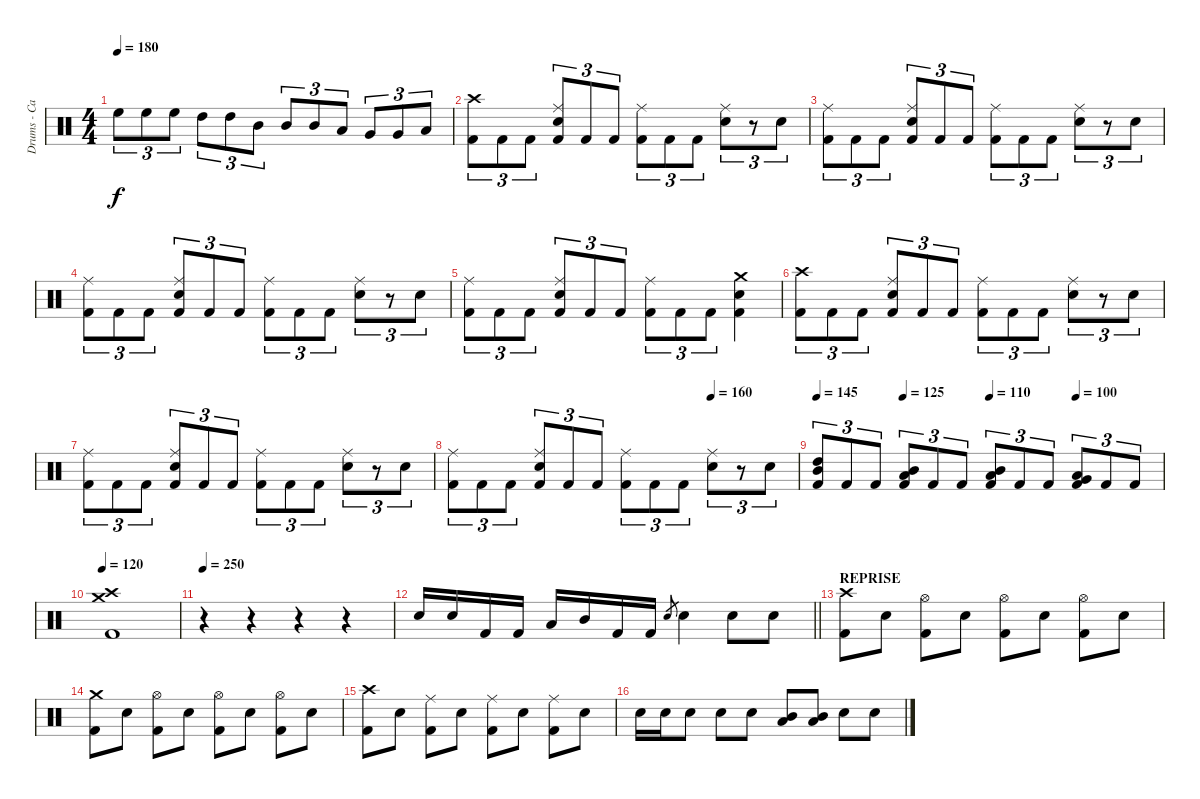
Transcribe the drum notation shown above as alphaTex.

\track ("Drums - Carlos Cruz" "Drums - Ca") {instrument percussion}
\staff {score}
\articulation defaults
\ts (4 4)
\tempo 180
\clef neutral
\ks c "High Floor Tom (hit)".8{tu (3 2) dy f} "High Floor Tom (hit)".8{tu (3 2)} "High Floor Tom (hit)".8{tu (3 2)} "High Tom (hit)".8{tu (3 2)} "High Tom (hit)".8{tu (3 2)} "Mid Tom (hit)".8{tu (3 2)} "Mid Tom (hit)".8{tu (3 2)} "Mid Tom (hit)".8{tu (3 2)} "Low Tom (hit)".8{tu (3 2)} "Very Low Tom (hit)".8{tu (3 2)} "Very Low Tom (hit)".8{tu (3 2)} "Low Floor Tom (hit)".8{tu (3 2)}
|
("Crash high (hit)" "Kick (hit) 2").8{tu (3 2)} "Kick (hit) 2".8{tu (3 2)} "Kick (hit) 2".8{tu (3 2)} ("Ride (middle)" "Snare (hit) 2" "Kick (hit) 2").8{tu (3 2)} "Kick (hit) 2".8{tu (3 2)} "Kick (hit) 2".8{tu (3 2)} ("Ride (middle)" "Kick (hit) 2").8{tu (3 2)} "Kick (hit) 2".8{tu (3 2)} "Kick (hit) 2".8{tu (3 2)} ("Ride (middle)" "Snare (hit) 2").8{tu (3 2)} r.8{tu (3 2)} "Snare (hit) 2".8{tu (3 2)} |
("Ride (middle)" "Kick (hit) 2").8{tu (3 2)} "Kick (hit) 2".8{tu (3 2)} "Kick (hit) 2".8{tu (3 2)} ("Ride (middle)" "Snare (hit) 2" "Kick (hit) 2").8{tu (3 2)} "Kick (hit) 2".8{tu (3 2)} "Kick (hit) 2".8{tu (3 2)} ("Ride (middle)" "Kick (hit) 2").8{tu (3 2)} "Kick (hit) 2".8{tu (3 2)} "Kick (hit) 2".8{tu (3 2)} ("Ride (middle)" "Snare (hit) 2").8{tu (3 2)} r.8{tu (3 2)} "Snare (hit) 2".8{tu (3 2)} |
("Ride (middle)" "Kick (hit) 2").8{tu (3 2)} "Kick (hit) 2".8{tu (3 2)} "Kick (hit) 2".8{tu (3 2)} ("Ride (middle)" "Snare (hit) 2" "Kick (hit) 2").8{tu (3 2)} "Kick (hit) 2".8{tu (3 2)} "Kick (hit) 2".8{tu (3 2)} ("Ride (middle)" "Kick (hit) 2").8{tu (3 2)} "Kick (hit) 2".8{tu (3 2)} "Kick (hit) 2".8{tu (3 2)} ("Ride (middle)" "Snare (hit) 2").8{tu (3 2)} r.8{tu (3 2)} "Snare (hit) 2".8{tu (3 2)} |
("Ride (middle)" "Kick (hit) 2").8{tu (3 2)} "Kick (hit) 2".8{tu (3 2)} "Kick (hit) 2".8{tu (3 2)} ("Ride (middle)" "Snare (hit) 2" "Kick (hit) 2").8{tu (3 2)} "Kick (hit) 2".8{tu (3 2)} "Kick (hit) 2".8{tu (3 2)} ("Ride (middle)" "Kick (hit) 2").8{tu (3 2)} "Kick (hit) 2".8{tu (3 2)} "Kick (hit) 2".8{tu (3 2)} ("Crash medium (hit)" "Snare (hit) 2" "Kick (hit) 2").4 |
("Crash high (hit)" "Kick (hit) 2").8{tu (3 2)} "Kick (hit) 2".8{tu (3 2)} "Kick (hit) 2".8{tu (3 2)} ("Ride (middle)" "Snare (hit) 2" "Kick (hit) 2").8{tu (3 2)} "Kick (hit) 2".8{tu (3 2)} "Kick (hit) 2".8{tu (3 2)} ("Ride (middle)" "Kick (hit) 2").8{tu (3 2)} "Kick (hit) 2".8{tu (3 2)} "Kick (hit) 2".8{tu (3 2)} ("Ride (middle)" "Snare (hit) 2").8{tu (3 2)} r.8{tu (3 2)} "Snare (hit) 2".8{tu (3 2)} |
("Ride (middle)" "Kick (hit) 2").8{tu (3 2)} "Kick (hit) 2".8{tu (3 2)} "Kick (hit) 2".8{tu (3 2)} ("Ride (middle)" "Snare (hit) 2" "Kick (hit) 2").8{tu (3 2)} "Kick (hit) 2".8{tu (3 2)} "Kick (hit) 2".8{tu (3 2)} ("Ride (middle)" "Kick (hit) 2").8{tu (3 2)} "Kick (hit) 2".8{tu (3 2)} "Kick (hit) 2".8{tu (3 2)} ("Ride (middle)" "Snare (hit) 2").8{tu (3 2)} r.8{tu (3 2)} "Snare (hit) 2".8{tu (3 2)} |
\tempo (160 0.75)
("Ride (middle)" "Kick (hit) 2").8{tu (3 2)} "Kick (hit) 2".8{tu (3 2)} "Kick (hit) 2".8{tu (3 2)} ("Ride (middle)" "Snare (hit) 2" "Kick (hit) 2").8{tu (3 2)} "Kick (hit) 2".8{tu (3 2)} "Kick (hit) 2".8{tu (3 2)} ("Ride (middle)" "Kick (hit) 2").8{tu (3 2)} "Kick (hit) 2".8{tu (3 2)} "Kick (hit) 2".8{tu (3 2)} ("Ride (middle)" "Snare (hit) 2").8{tu (3 2)} r.8{tu (3 2)} "Snare (hit) 2".8{tu (3 2)} |
\tempo 145
\tempo (125 0.25)
\tempo (110 0.5)
\tempo (100 0.75)
("High Tom (hit)" "Mid Tom (hit)" "Kick (hit) 2").8{tu (3 2)} "Kick (hit) 2".8{tu (3 2)} "Kick (hit) 2".8{tu (3 2)} ("Mid Tom (hit)" "Low Tom (hit)" "Kick (hit) 2").8{tu (3 2)} "Kick (hit) 2".8{tu (3 2)} "Kick (hit) 2".8{tu (3 2)} ("Mid Tom (hit)" "Low Tom (hit)" "Kick (hit) 2").8{tu (3 2)} "Kick (hit) 2".8{tu (3 2)} "Kick (hit) 2".8{tu (3 2)} ("Low Tom (hit)" "Very Low Tom (hit)" "Kick (hit) 2").8{tu (3 2)} "Kick (hit) 2".8{tu (3 2)} "Kick (hit) 2".8{tu (3 2)} |
\tempo 120
("Crash medium (hit)" "Crash high (hit)" "Kick (hit) 2").1 |
\tempo 250
r.4 r.4 r.4 r.4 |
\barLineRight lightlight "Snare (hit) 2".16 "Snare (hit) 2".16 "Kick (hit) 2".16 "Kick (hit) 2".16 "Low Tom (hit)".16 "Mid Tom (hit)".16 "Kick (hit) 2".16 "Kick (hit) 2".16 "Snare (hit) 2".8{gr} "Snare (hit) 2".4 "Snare (hit) 2".8 "Snare (hit) 2".8
|
\section ("" "REPRISE")
("Crash high (hit)" "Kick (hit) 2").8 "Snare (hit) 2".8 ("Hi-Hat (open)" "Kick (hit) 2").8 "Snare (hit) 2".8 ("Hi-Hat (open)" "Kick (hit) 2").8 "Snare (hit) 2".8 ("Hi-Hat (open)" "Kick (hit) 2").8 "Snare (hit) 2".8 |
("Crash medium (hit)" "Kick (hit) 2").8 "Snare (hit) 2".8 ("Hi-Hat (open)" "Kick (hit) 2").8 "Snare (hit) 2".8 ("Hi-Hat (open)" "Kick (hit) 2").8 "Snare (hit) 2".8 ("Hi-Hat (open)" "Kick (hit) 2").8 "Snare (hit) 2".8 |
("Crash high (hit)" "Kick (hit) 2").8 "Snare (hit) 2".8 ("Ride (middle)" "Kick (hit) 2").8 "Snare (hit) 2".8 ("Ride (middle)" "Kick (hit) 2").8 "Snare (hit) 2".8 ("Ride (middle)" "Kick (hit) 2").8 "Snare (hit) 2".8 |
"Snare (hit) 2".16 "Snare (hit) 2".16 "Snare (hit) 2".8 "Snare (hit) 2".8 "Snare (hit) 2".8 ("Mid Tom (hit)" "Low Tom (hit)").8 ("Mid Tom (hit)" "Low Tom (hit)").8 "Snare (hit) 2".8 "Snare (hit) 2".8
